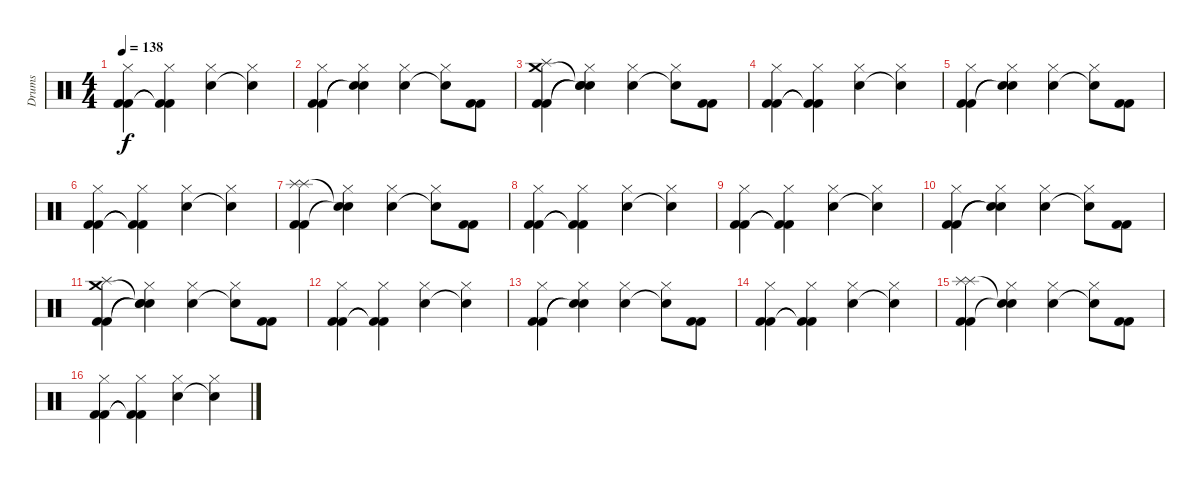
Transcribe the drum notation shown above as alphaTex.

\track ("Drums" "Drums") {instrument percussion}
\staff {score}
\articulation defaults
\ts (4 4)
\tempo 138
\clef neutral
\ks c
("Hi-Hat (closed)" "Kick (hit) 2" "Kick (hit) 2").4{dy f} ("Hi-Hat (closed)" "Kick (hit) 2"{t} "Kick (hit) 2"{t}).4 ("Hi-Hat (closed)" "Snare (hit) 2").4 ("Hi-Hat (closed)" "Snare (hit)"{t}).4 |
("Hi-Hat (closed)" "Kick (hit) 2" "Kick (hit) 2").4 ("Hi-Hat (closed)" "Snare (hit)"{t} "Snare (hit)"{t}).4 ("Hi-Hat (closed)" "Snare (hit) 2").4 ("Hi-Hat (closed)" "Snare (hit)"{t}).8 ("Kick (hit) 2" "Kick (hit) 2").8 |
("Splash (hit)" "Crash medium (hit)" "Kick (hit) 2" "Kick (hit) 2").4 ("Hi-Hat (closed)" "Snare (hit)"{t} "Snare (hit)"{t} "Snare (hit)"{t}).4 ("Hi-Hat (closed)" "Snare (hit) 2").4 ("Hi-Hat (closed)" "Snare (hit)"{t}).8 ("Kick (hit) 2" "Kick (hit) 2").8 |
("Hi-Hat (closed)" "Kick (hit) 2" "Kick (hit) 2").4 ("Hi-Hat (closed)" "Kick (hit) 2"{t} "Kick (hit) 2"{t}).4 ("Hi-Hat (closed)" "Snare (hit) 2").4 ("Hi-Hat (closed)" "Snare (hit)"{t}).4 |
("Hi-Hat (closed)" "Kick (hit) 2" "Kick (hit) 2").4 ("Hi-Hat (closed)" "Snare (hit)"{t} "Snare (hit)"{t}).4 ("Hi-Hat (closed)" "Snare (hit) 2").4 ("Hi-Hat (closed)" "Snare (hit)"{t}).8 ("Kick (hit) 2" "Kick (hit) 2").8 |
("Hi-Hat (closed)" "Kick (hit) 2" "Kick (hit) 2").4 ("Hi-Hat (closed)" "Kick (hit) 2"{t} "Kick (hit) 2"{t}).4 ("Hi-Hat (closed)" "Snare (hit) 2").4 ("Hi-Hat (closed)" "Snare (hit)"{t}).4 |
("Splash (hit)" "Splash (hit)" "Kick (hit) 2" "Kick (hit) 2").4 ("Hi-Hat (closed)" "Snare (hit)"{t} "Snare (hit)"{t}).4 ("Hi-Hat (closed)" "Snare (hit) 2").4 ("Hi-Hat (closed)" "Snare (hit)"{t}).8 ("Kick (hit) 2" "Kick (hit) 2").8 |
("Hi-Hat (closed)" "Kick (hit) 2" "Kick (hit) 2").4 ("Hi-Hat (closed)" "Kick (hit) 2"{t} "Kick (hit) 2"{t}).4 ("Hi-Hat (closed)" "Snare (hit) 2").4 ("Hi-Hat (closed)" "Snare (hit)"{t}).4 |
("Hi-Hat (closed)" "Kick (hit) 2" "Kick (hit) 2").4 ("Hi-Hat (closed)" "Kick (hit) 2"{t} "Kick (hit) 2"{t}).4 ("Hi-Hat (closed)" "Snare (hit) 2").4 ("Hi-Hat (closed)" "Snare (hit)"{t}).4 |
("Hi-Hat (closed)" "Kick (hit) 2" "Kick (hit) 2").4 ("Hi-Hat (closed)" "Snare (hit)"{t} "Snare (hit)"{t}).4 ("Hi-Hat (closed)" "Snare (hit) 2").4 ("Hi-Hat (closed)" "Snare (hit)"{t}).8 ("Kick (hit) 2" "Kick (hit) 2").8 |
("Splash (hit)" "Crash medium (hit)" "Kick (hit) 2" "Kick (hit) 2").4 ("Hi-Hat (closed)" "Snare (hit)"{t} "Snare (hit)"{t} "Snare (hit)"{t}).4 ("Hi-Hat (closed)" "Snare (hit) 2").4 ("Hi-Hat (closed)" "Snare (hit)"{t}).8 ("Kick (hit) 2" "Kick (hit) 2").8 |
("Hi-Hat (closed)" "Kick (hit) 2" "Kick (hit) 2").4 ("Hi-Hat (closed)" "Kick (hit) 2"{t} "Kick (hit) 2"{t}).4 ("Hi-Hat (closed)" "Snare (hit) 2").4 ("Hi-Hat (closed)" "Snare (hit)"{t}).4 |
("Hi-Hat (closed)" "Kick (hit) 2" "Kick (hit) 2").4 ("Hi-Hat (closed)" "Snare (hit)"{t} "Snare (hit)"{t}).4 ("Hi-Hat (closed)" "Snare (hit) 2").4 ("Hi-Hat (closed)" "Snare (hit)"{t}).8 ("Kick (hit) 2" "Kick (hit) 2").8 |
("Hi-Hat (closed)" "Kick (hit) 2" "Kick (hit) 2").4 ("Hi-Hat (closed)" "Kick (hit) 2"{t} "Kick (hit) 2"{t}).4 ("Hi-Hat (closed)" "Snare (hit) 2").4 ("Hi-Hat (closed)" "Snare (hit)"{t}).4 |
("Splash (hit)" "Splash (hit)" "Kick (hit) 2" "Kick (hit) 2").4 ("Hi-Hat (closed)" "Snare (hit)"{t} "Snare (hit)"{t}).4 ("Hi-Hat (closed)" "Snare (hit) 2").4 ("Hi-Hat (closed)" "Snare (hit)"{t}).8 ("Kick (hit) 2" "Kick (hit) 2").8 |
("Hi-Hat (closed)" "Kick (hit) 2" "Kick (hit) 2").4 ("Hi-Hat (closed)" "Kick (hit) 2"{t} "Kick (hit) 2"{t}).4 ("Hi-Hat (closed)" "Snare (hit) 2").4 ("Hi-Hat (closed)" "Snare (hit)"{t}).4
